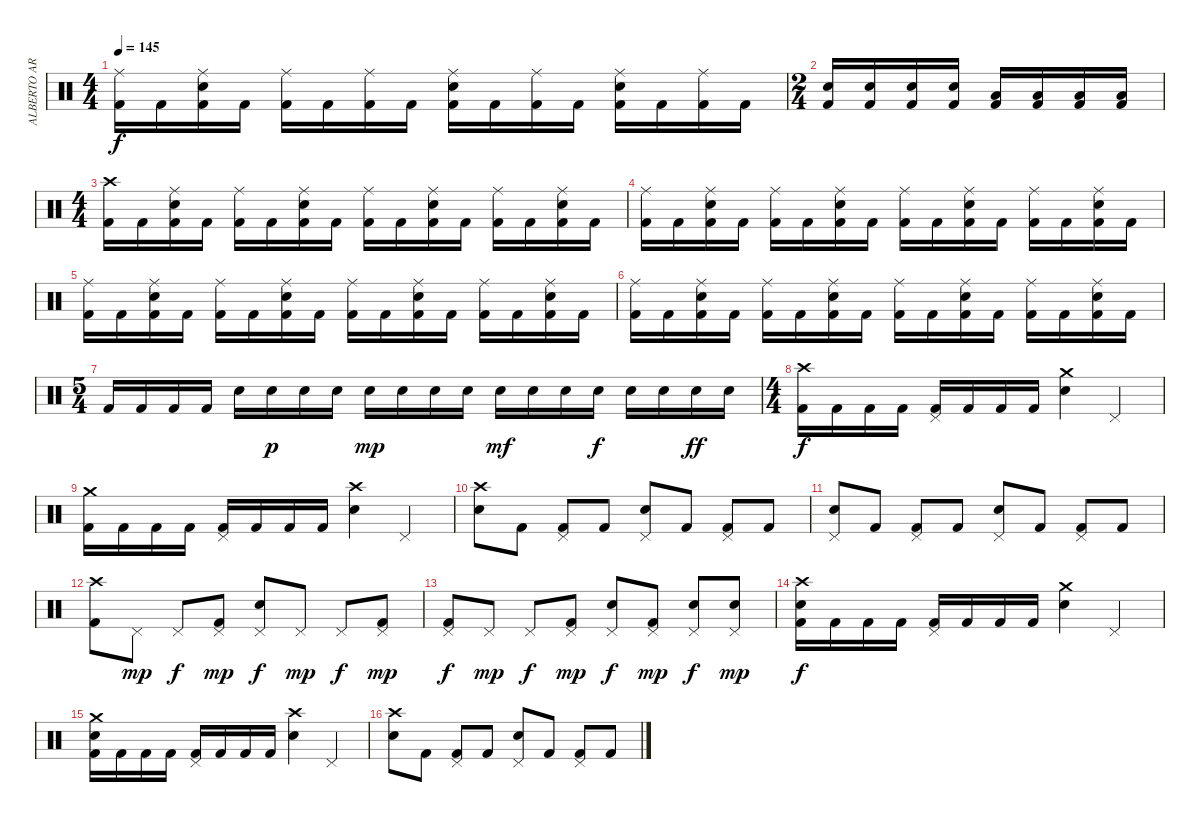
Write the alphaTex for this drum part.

\track ("ALBERTO ARDINES" "ALBERTO AR") {instrument percussion}
\staff {score}
\articulation defaults
\ts (4 4)
\tempo 145
\clef neutral
\ks c
("Ride (middle)" "Kick (hit) 2").16{dy f} "Kick (hit) 2".16 ("Ride (middle)" "Electric Snare (hit)" "Kick (hit) 2").16 "Kick (hit) 2".16 ("Ride (middle)" "Kick (hit) 2").16 "Kick (hit) 2".16 ("Ride (middle)" "Kick (hit) 2").16 "Kick (hit) 2".16 ("Ride (middle)" "Electric Snare (hit)" "Kick (hit) 2").16 "Kick (hit) 2".16 ("Ride (middle)" "Kick (hit) 2").16 "Kick (hit) 2".16 ("Ride (middle)" "Electric Snare (hit)" "Kick (hit) 2").16 "Kick (hit) 2".16 ("Ride (middle)" "Kick (hit) 2").16 "Kick (hit) 2".16 |
\ts (2 4)
("Electric Snare (hit)" "Kick (hit) 2").16 ("Electric Snare (hit)" "Kick (hit) 2").16 ("Electric Snare (hit)" "Kick (hit) 2").16 ("Electric Snare (hit)" "Kick (hit) 2").16 ("Low Tom (hit)" "Kick (hit) 2").16 ("Low Tom (hit)" "Kick (hit) 2").16 ("Low Tom (hit)" "Kick (hit) 2").16 ("Low Tom (hit)" "Kick (hit) 2").16 |
\ts (4 4)
("Crash high (hit)" "Kick (hit) 2").16 "Kick (hit) 2".16 ("Ride (middle)" "Electric Snare (hit)" "Kick (hit) 2").16 "Kick (hit) 2".16 ("Ride (middle)" "Kick (hit) 2").16 "Kick (hit) 2".16 ("Ride (middle)" "Electric Snare (hit)" "Kick (hit) 2").16 "Kick (hit) 2".16 ("Ride (middle)" "Kick (hit) 2").16 "Kick (hit) 2".16 ("Ride (middle)" "Electric Snare (hit)" "Kick (hit) 2").16 "Kick (hit) 2".16 ("Ride (middle)" "Kick (hit) 2").16 "Kick (hit) 2".16 ("Ride (middle)" "Electric Snare (hit)" "Kick (hit) 2").16 "Kick (hit) 2".16 |
("Ride (middle)" "Kick (hit) 2").16 "Kick (hit) 2".16 ("Ride (middle)" "Electric Snare (hit)" "Kick (hit) 2").16 "Kick (hit) 2".16 ("Ride (middle)" "Kick (hit) 2").16 "Kick (hit) 2".16 ("Ride (middle)" "Electric Snare (hit)" "Kick (hit) 2").16 "Kick (hit) 2".16 ("Ride (middle)" "Kick (hit) 2").16 "Kick (hit) 2".16 ("Ride (middle)" "Electric Snare (hit)" "Kick (hit) 2").16 "Kick (hit) 2".16 ("Ride (middle)" "Kick (hit) 2").16 "Kick (hit) 2".16 ("Ride (middle)" "Electric Snare (hit)" "Kick (hit) 2").16 "Kick (hit) 2".16 |
("Ride (middle)" "Kick (hit) 2").16 "Kick (hit) 2".16 ("Ride (middle)" "Electric Snare (hit)" "Kick (hit) 2").16 "Kick (hit) 2".16 ("Ride (middle)" "Kick (hit) 2").16 "Kick (hit) 2".16 ("Ride (middle)" "Electric Snare (hit)" "Kick (hit) 2").16 "Kick (hit) 2".16 ("Ride (middle)" "Kick (hit) 2").16 "Kick (hit) 2".16 ("Ride (middle)" "Electric Snare (hit)" "Kick (hit) 2").16 "Kick (hit) 2".16 ("Ride (middle)" "Kick (hit) 2").16 "Kick (hit) 2".16 ("Ride (middle)" "Electric Snare (hit)" "Kick (hit) 2").16 "Kick (hit) 2".16 |
("Ride (middle)" "Kick (hit) 2").16 "Kick (hit) 2".16 ("Ride (middle)" "Electric Snare (hit)" "Kick (hit) 2").16 "Kick (hit) 2".16 ("Ride (middle)" "Kick (hit) 2").16 "Kick (hit) 2".16 ("Ride (middle)" "Electric Snare (hit)" "Kick (hit) 2").16 "Kick (hit) 2".16 ("Ride (middle)" "Kick (hit) 2").16 "Kick (hit) 2".16 ("Ride (middle)" "Electric Snare (hit)" "Kick (hit) 2").16 "Kick (hit) 2".16 ("Ride (middle)" "Kick (hit) 2").16 "Kick (hit) 2".16 ("Ride (middle)" "Electric Snare (hit)" "Kick (hit) 2").16 "Kick (hit) 2".16 |
\ts (5 4)
"Kick (hit) 2".16 "Kick (hit) 2".16 "Kick (hit) 2".16 "Kick (hit) 2".16 "Electric Snare (hit)".16 "Electric Snare (hit)".16{dy p} "Electric Snare (hit)".16 "Electric Snare (hit)".16 "Electric Snare (hit)".16{dy mp} "Electric Snare (hit)".16 "Electric Snare (hit)".16 "Electric Snare (hit)".16 "Electric Snare (hit)".16{dy mf} "Electric Snare (hit)".16 "Electric Snare (hit)".16 "Electric Snare (hit)".16{dy f} "Electric Snare (hit)".16 "Electric Snare (hit)".16 "Electric Snare (hit)".16{dy ff} "Electric Snare (hit)".16 |
\ts (4 4)
("Crash high (hit)" "Kick (hit) 2").16{dy f} "Kick (hit) 2".16 "Kick (hit) 2".16 "Kick (hit) 2".16 ("Pedal Hi-Hat (hit)" "Kick (hit) 2").16 "Kick (hit) 2".16 "Kick (hit) 2".16 "Kick (hit) 2".16 ("Crash medium (hit)" "Electric Snare (hit)").4 "Pedal Hi-Hat (hit)".4 |
("Crash medium (hit)" "Kick (hit) 2").16 "Kick (hit) 2".16 "Kick (hit) 2".16 "Kick (hit) 2".16 ("Pedal Hi-Hat (hit)" "Kick (hit) 2").16 "Kick (hit) 2".16 "Kick (hit) 2".16 "Kick (hit) 2".16 ("Crash high (hit)" "Electric Snare (hit)").4 "Pedal Hi-Hat (hit)".4 |
("Crash high (hit)" "Electric Snare (hit)").8 "Kick (hit) 2".8 ("Pedal Hi-Hat (hit)" "Kick (hit) 2").8 "Kick (hit) 2".8 ("Pedal Hi-Hat (hit)" "Electric Snare (hit)").8 "Kick (hit) 2".8 ("Pedal Hi-Hat (hit)" "Kick (hit) 2").8 "Kick (hit) 2".8 |
("Pedal Hi-Hat (hit)" "Electric Snare (hit)").8 "Kick (hit) 2".8 ("Pedal Hi-Hat (hit)" "Kick (hit) 2").8 "Kick (hit) 2".8 ("Pedal Hi-Hat (hit)" "Electric Snare (hit)").8 "Kick (hit) 2".8 ("Pedal Hi-Hat (hit)" "Kick (hit) 2").8 "Kick (hit) 2".8 |
("Crash high (hit)" "Kick (hit) 2").8 "Pedal Hi-Hat (hit)".8{dy mp} "Pedal Hi-Hat (hit)".8{dy f} ("Pedal Hi-Hat (hit)" "Kick (hit) 2").8{dy mp} ("Pedal Hi-Hat (hit)" "Electric Snare (hit)").8{dy f} "Pedal Hi-Hat (hit)".8{dy mp} "Pedal Hi-Hat (hit)".8{dy f} ("Pedal Hi-Hat (hit)" "Kick (hit) 2").8{dy mp} |
("Pedal Hi-Hat (hit)" "Kick (hit) 2").8{dy f} "Pedal Hi-Hat (hit)".8{dy mp} "Pedal Hi-Hat (hit)".8{dy f} ("Pedal Hi-Hat (hit)" "Kick (hit) 2").8{dy mp} ("Pedal Hi-Hat (hit)" "Electric Snare (hit)").8{dy f} ("Pedal Hi-Hat (hit)" "Kick (hit) 2").8{dy mp} ("Pedal Hi-Hat (hit)" "Electric Snare (hit)").8{dy f} ("Pedal Hi-Hat (hit)" "Electric Snare (hit)").8{dy mp} |
("Crash high (hit)" "Electric Snare (hit)" "Kick (hit) 2").16{dy f} "Kick (hit) 2".16 "Kick (hit) 2".16 "Kick (hit) 2".16 ("Pedal Hi-Hat (hit)" "Kick (hit) 2").16 "Kick (hit) 2".16 "Kick (hit) 2".16 "Kick (hit) 2".16 ("Crash medium (hit)" "Electric Snare (hit)").4 "Pedal Hi-Hat (hit)".4 |
("Crash medium (hit)" "Electric Snare (hit)" "Kick (hit) 2").16 "Kick (hit) 2".16 "Kick (hit) 2".16 "Kick (hit) 2".16 ("Pedal Hi-Hat (hit)" "Kick (hit) 2").16 "Kick (hit) 2".16 "Kick (hit) 2".16 "Kick (hit) 2".16 ("Crash high (hit)" "Electric Snare (hit)").4 "Pedal Hi-Hat (hit)".4 |
("Crash high (hit)" "Electric Snare (hit)").8 "Kick (hit) 2".8 ("Pedal Hi-Hat (hit)" "Kick (hit) 2").8 "Kick (hit) 2".8 ("Pedal Hi-Hat (hit)" "Electric Snare (hit)").8 "Kick (hit) 2".8 ("Pedal Hi-Hat (hit)" "Kick (hit) 2").8 "Kick (hit) 2".8
